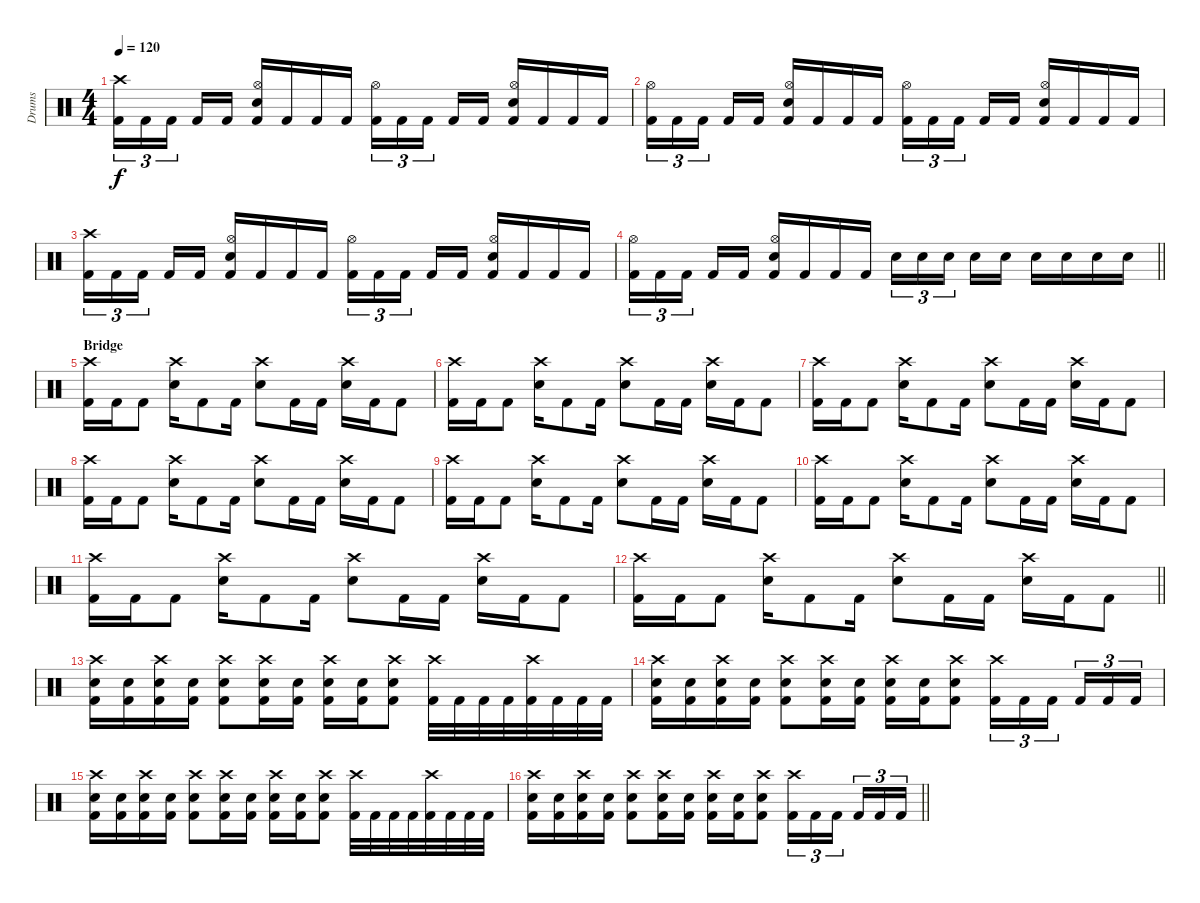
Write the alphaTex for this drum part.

\track ("Drums" "Drums") {instrument percussion}
\staff {score}
\articulation defaults
\ts (4 4)
\tempo 120
\clef neutral
\ks c
("Crash high (hit)" "Kick (hit) 2").16{tu (3 2) dy f} "Kick (hit) 2".16{tu (3 2)} "Kick (hit) 2".16{tu (3 2)} "Kick (hit) 2".16 "Kick (hit) 2".16 ("Hi-Hat (open)" "Electric Snare (hit)" "Kick (hit) 2").16 "Kick (hit) 2".16 "Kick (hit) 2".16 "Kick (hit) 2".16 ("Hi-Hat (open)" "Kick (hit) 2").16{tu (3 2)} "Kick (hit) 2".16{tu (3 2)} "Kick (hit) 2".16{tu (3 2)} "Kick (hit) 2".16 "Kick (hit) 2".16 ("Hi-Hat (open)" "Electric Snare (hit)" "Kick (hit) 2").16 "Kick (hit) 2".16 "Kick (hit) 2".16 "Kick (hit) 2".16 |
("Hi-Hat (open)" "Kick (hit) 2").16{tu (3 2)} "Kick (hit) 2".16{tu (3 2)} "Kick (hit) 2".16{tu (3 2)} "Kick (hit) 2".16 "Kick (hit) 2".16 ("Hi-Hat (open)" "Electric Snare (hit)" "Kick (hit) 2").16 "Kick (hit) 2".16 "Kick (hit) 2".16 "Kick (hit) 2".16 ("Hi-Hat (open)" "Kick (hit) 2").16{tu (3 2)} "Kick (hit) 2".16{tu (3 2)} "Kick (hit) 2".16{tu (3 2)} "Kick (hit) 2".16 "Kick (hit) 2".16 ("Hi-Hat (open)" "Electric Snare (hit)" "Kick (hit) 2").16 "Kick (hit) 2".16 "Kick (hit) 2".16 "Kick (hit) 2".16 |
("Crash high (hit)" "Kick (hit) 2").16{tu (3 2)} "Kick (hit) 2".16{tu (3 2)} "Kick (hit) 2".16{tu (3 2)} "Kick (hit) 2".16 "Kick (hit) 2".16 ("Hi-Hat (open)" "Electric Snare (hit)" "Kick (hit) 2").16 "Kick (hit) 2".16 "Kick (hit) 2".16 "Kick (hit) 2".16 ("Hi-Hat (open)" "Kick (hit) 2").16{tu (3 2)} "Kick (hit) 2".16{tu (3 2)} "Kick (hit) 2".16{tu (3 2)} "Kick (hit) 2".16 "Kick (hit) 2".16 ("Hi-Hat (open)" "Electric Snare (hit)" "Kick (hit) 2").16 "Kick (hit) 2".16 "Kick (hit) 2".16 "Kick (hit) 2".16 |
\barLineRight lightlight
("Hi-Hat (open)" "Kick (hit) 2").16{tu (3 2)} "Kick (hit) 2".16{tu (3 2)} "Kick (hit) 2".16{tu (3 2)} "Kick (hit) 2".16 "Kick (hit) 2".16 ("Hi-Hat (open)" "Electric Snare (hit)" "Kick (hit) 2").16 "Kick (hit) 2".16 "Kick (hit) 2".16 "Kick (hit) 2".16 "Electric Snare (hit)".16{tu (3 2)} "Electric Snare (hit)".16{tu (3 2)} "Electric Snare (hit)".16{tu (3 2)} "Electric Snare (hit)".16 "Electric Snare (hit)".16 "Electric Snare (hit)".16 "Electric Snare (hit)".16 "Electric Snare (hit)".16 "Electric Snare (hit)".16 |
\section ("" "Bridge")
("Crash high (hit)" "Kick (hit) 2").16 "Kick (hit) 2".16 "Kick (hit) 2".8 ("Crash high (hit)" "Electric Snare (hit)").16 "Kick (hit) 2".8 "Kick (hit) 2".16 ("Crash high (hit)" "Electric Snare (hit)").8 "Kick (hit) 2".16 "Kick (hit) 2".16 ("Crash high (hit)" "Electric Snare (hit)").16 "Kick (hit) 2".16 "Kick (hit) 2".8 |
("Crash high (hit)" "Kick (hit) 2").16 "Kick (hit) 2".16 "Kick (hit) 2".8 ("Crash high (hit)" "Electric Snare (hit)").16 "Kick (hit) 2".8 "Kick (hit) 2".16 ("Crash high (hit)" "Electric Snare (hit)").8 "Kick (hit) 2".16 "Kick (hit) 2".16 ("Crash high (hit)" "Electric Snare (hit)").16 "Kick (hit) 2".16 "Kick (hit) 2".8 |
("Crash high (hit)" "Kick (hit) 2").16 "Kick (hit) 2".16 "Kick (hit) 2".8 ("Crash high (hit)" "Electric Snare (hit)").16 "Kick (hit) 2".8 "Kick (hit) 2".16 ("Crash high (hit)" "Electric Snare (hit)").8 "Kick (hit) 2".16 "Kick (hit) 2".16 ("Crash high (hit)" "Electric Snare (hit)").16 "Kick (hit) 2".16 "Kick (hit) 2".8 |
("Crash high (hit)" "Kick (hit) 2").16 "Kick (hit) 2".16 "Kick (hit) 2".8 ("Crash high (hit)" "Electric Snare (hit)").16 "Kick (hit) 2".8 "Kick (hit) 2".16 ("Crash high (hit)" "Electric Snare (hit)").8 "Kick (hit) 2".16 "Kick (hit) 2".16 ("Crash high (hit)" "Electric Snare (hit)").16 "Kick (hit) 2".16 "Kick (hit) 2".8 |
("Crash high (hit)" "Kick (hit) 2").16 "Kick (hit) 2".16 "Kick (hit) 2".8 ("Crash high (hit)" "Electric Snare (hit)").16 "Kick (hit) 2".8 "Kick (hit) 2".16 ("Crash high (hit)" "Electric Snare (hit)").8 "Kick (hit) 2".16 "Kick (hit) 2".16 ("Crash high (hit)" "Electric Snare (hit)").16 "Kick (hit) 2".16 "Kick (hit) 2".8 |
("Crash high (hit)" "Kick (hit) 2").16 "Kick (hit) 2".16 "Kick (hit) 2".8 ("Crash high (hit)" "Electric Snare (hit)").16 "Kick (hit) 2".8 "Kick (hit) 2".16 ("Crash high (hit)" "Electric Snare (hit)").8 "Kick (hit) 2".16 "Kick (hit) 2".16 ("Crash high (hit)" "Electric Snare (hit)").16 "Kick (hit) 2".16 "Kick (hit) 2".8 |
("Crash high (hit)" "Kick (hit) 2").16 "Kick (hit) 2".16 "Kick (hit) 2".8 ("Crash high (hit)" "Electric Snare (hit)").16 "Kick (hit) 2".8 "Kick (hit) 2".16 ("Crash high (hit)" "Electric Snare (hit)").8 "Kick (hit) 2".16 "Kick (hit) 2".16 ("Crash high (hit)" "Electric Snare (hit)").16 "Kick (hit) 2".16 "Kick (hit) 2".8 |
\barLineRight lightlight
("Crash high (hit)" "Kick (hit) 2").16 "Kick (hit) 2".16 "Kick (hit) 2".8 ("Crash high (hit)" "Electric Snare (hit)").16 "Kick (hit) 2".8 "Kick (hit) 2".16 ("Crash high (hit)" "Electric Snare (hit)").8 "Kick (hit) 2".16 "Kick (hit) 2".16 ("Crash high (hit)" "Electric Snare (hit)").16 "Kick (hit) 2".16 "Kick (hit) 2".8 |
\section ("" "")
("Crash high (hit)" "Electric Snare (hit)" "Kick (hit) 2").16 ("Electric Snare (hit)" "Kick (hit) 2").16 ("Crash high (hit)" "Electric Snare (hit)" "Kick (hit) 2").16 ("Electric Snare (hit)" "Kick (hit) 2").16 ("Crash high (hit)" "Electric Snare (hit)" "Kick (hit) 2").8 ("Crash high (hit)" "Electric Snare (hit)" "Kick (hit) 2").16 ("Electric Snare (hit)" "Kick (hit) 2").16 ("Crash high (hit)" "Electric Snare (hit)" "Kick (hit) 2").16 ("Electric Snare (hit)" "Kick (hit) 2").16 ("Crash high (hit)" "Electric Snare (hit)" "Kick (hit) 2").8 ("Crash high (hit)" "Kick (hit) 2").32 "Kick (hit) 2".32 "Kick (hit) 2".32 "Kick (hit) 2".32 ("Crash high (hit)" "Kick (hit) 2").32 "Kick (hit) 2".32 "Kick (hit) 2".32 "Kick (hit) 2".32 |
("Crash high (hit)" "Electric Snare (hit)" "Kick (hit) 2").16 ("Electric Snare (hit)" "Kick (hit) 2").16 ("Crash high (hit)" "Electric Snare (hit)" "Kick (hit) 2").16 ("Electric Snare (hit)" "Kick (hit) 2").16 ("Crash high (hit)" "Electric Snare (hit)" "Kick (hit) 2").8 ("Crash high (hit)" "Electric Snare (hit)" "Kick (hit) 2").16 ("Electric Snare (hit)" "Kick (hit) 2").16 ("Crash high (hit)" "Electric Snare (hit)" "Kick (hit) 2").16 ("Electric Snare (hit)" "Kick (hit) 2").16 ("Crash high (hit)" "Electric Snare (hit)" "Kick (hit) 2").8 ("Crash high (hit)" "Kick (hit) 2").16{tu (3 2)} "Kick (hit) 2".16{tu (3 2)} "Kick (hit) 2".16{tu (3 2)} "Kick (hit) 2".16{tu (3 2)} "Kick (hit) 2".16{tu (3 2)} "Kick (hit) 2".16{tu (3 2)} |
("Crash high (hit)" "Electric Snare (hit)" "Kick (hit) 2").16 ("Electric Snare (hit)" "Kick (hit) 2").16 ("Crash high (hit)" "Electric Snare (hit)" "Kick (hit) 2").16 ("Electric Snare (hit)" "Kick (hit) 2").16 ("Crash high (hit)" "Electric Snare (hit)" "Kick (hit) 2").8 ("Crash high (hit)" "Electric Snare (hit)" "Kick (hit) 2").16 ("Electric Snare (hit)" "Kick (hit) 2").16 ("Crash high (hit)" "Electric Snare (hit)" "Kick (hit) 2").16 ("Electric Snare (hit)" "Kick (hit) 2").16 ("Crash high (hit)" "Electric Snare (hit)" "Kick (hit) 2").8 ("Crash high (hit)" "Kick (hit) 2").32 "Kick (hit) 2".32 "Kick (hit) 2".32 "Kick (hit) 2".32 ("Crash high (hit)" "Kick (hit) 2").32 "Kick (hit) 2".32 "Kick (hit) 2".32 "Kick (hit) 2".32 |
\barLineRight lightlight
("Crash high (hit)" "Electric Snare (hit)" "Kick (hit) 2").16 ("Electric Snare (hit)" "Kick (hit) 2").16 ("Crash high (hit)" "Electric Snare (hit)" "Kick (hit) 2").16 ("Electric Snare (hit)" "Kick (hit) 2").16 ("Crash high (hit)" "Electric Snare (hit)" "Kick (hit) 2").8 ("Crash high (hit)" "Electric Snare (hit)" "Kick (hit) 2").16 ("Electric Snare (hit)" "Kick (hit) 2").16 ("Crash high (hit)" "Electric Snare (hit)" "Kick (hit) 2").16 ("Electric Snare (hit)" "Kick (hit) 2").16 ("Crash high (hit)" "Electric Snare (hit)" "Kick (hit) 2").8 ("Crash high (hit)" "Kick (hit) 2").16{tu (3 2)} "Kick (hit) 2".16{tu (3 2)} "Kick (hit) 2".16{tu (3 2)} "Kick (hit) 2".16{tu (3 2)} "Kick (hit) 2".16{tu (3 2)} "Kick (hit) 2".16{tu (3 2)}
